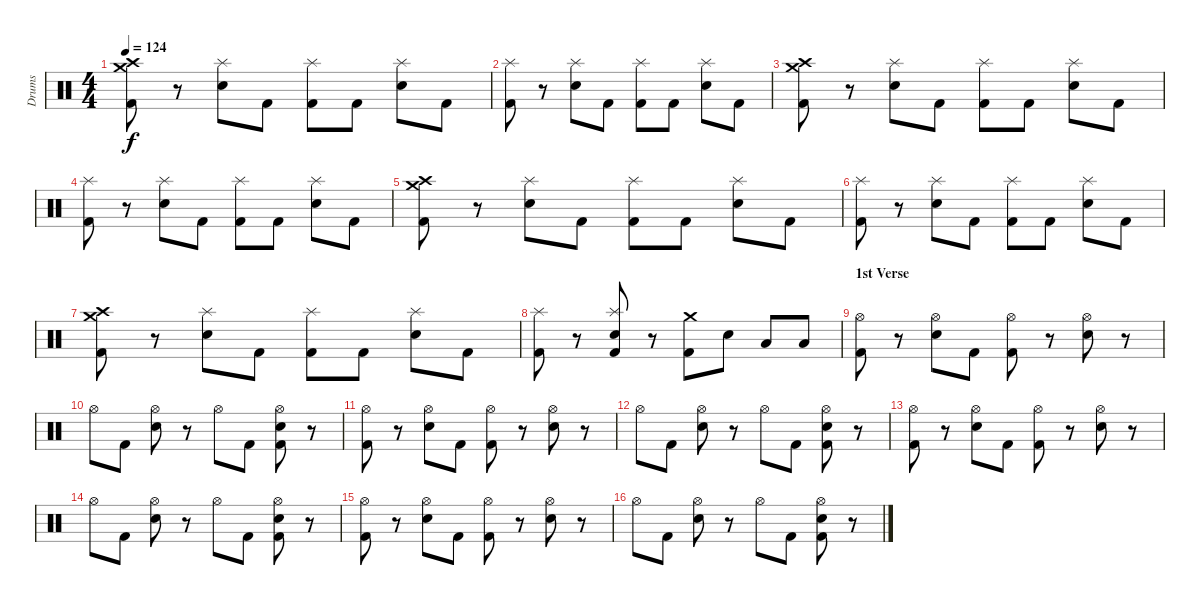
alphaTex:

\track ("Drums" "Drums") {instrument percussion}
\staff {score}
\articulation defaults
\ts (4 4)
\tempo 124
\clef neutral
\ks c
("Crash medium (hit)" "Crash high (hit)" "Kick (hit) 2").8{dy f} r.8 ("Splash (hit)" "Snare (hit) 2").8 "Kick (hit) 2".8 ("Splash (hit)" "Kick (hit) 2").8 "Kick (hit) 2".8 ("Splash (hit)" "Snare (hit) 2").8 "Kick (hit) 2".8 |
("Splash (hit)" "Kick (hit) 2").8 r.8 ("Splash (hit)" "Snare (hit) 2").8 "Kick (hit) 2".8 ("Splash (hit)" "Kick (hit) 2").8 "Kick (hit) 2".8 ("Splash (hit)" "Snare (hit) 2").8 "Kick (hit) 2".8 |
("Crash medium (hit)" "Crash high (hit)" "Kick (hit) 2").8 r.8 ("Splash (hit)" "Snare (hit) 2").8 "Kick (hit) 2".8 ("Splash (hit)" "Kick (hit) 2").8 "Kick (hit) 2".8 ("Splash (hit)" "Snare (hit) 2").8 "Kick (hit) 2".8 |
("Splash (hit)" "Kick (hit) 2").8 r.8 ("Splash (hit)" "Snare (hit) 2").8 "Kick (hit) 2".8 ("Splash (hit)" "Kick (hit) 2").8 "Kick (hit) 2".8 ("Splash (hit)" "Snare (hit) 2").8 "Kick (hit) 2".8 |
("Crash medium (hit)" "Crash high (hit)" "Kick (hit) 2").8 r.8 ("Splash (hit)" "Snare (hit) 2").8 "Kick (hit) 2".8 ("Splash (hit)" "Kick (hit) 2").8 "Kick (hit) 2".8 ("Splash (hit)" "Snare (hit) 2").8 "Kick (hit) 2".8 |
("Splash (hit)" "Kick (hit) 2").8 r.8 ("Splash (hit)" "Snare (hit) 2").8 "Kick (hit) 2".8 ("Splash (hit)" "Kick (hit) 2").8 "Kick (hit) 2".8 ("Splash (hit)" "Snare (hit) 2").8 "Kick (hit) 2".8 |
("Crash medium (hit)" "Crash high (hit)" "Kick (hit) 2").8 r.8 ("Splash (hit)" "Snare (hit) 2").8 "Kick (hit) 2".8 ("Splash (hit)" "Kick (hit) 2").8 "Kick (hit) 2".8 ("Splash (hit)" "Snare (hit) 2").8 "Kick (hit) 2".8 |
("Splash (hit)" "Kick (hit) 2").8 r.8 ("Splash (hit)" "Snare (hit) 2" "Kick (hit) 2").8 r.8 ("Crash medium (hit)" "Kick (hit) 2").8 "Snare (hit) 2".8 "Low Tom (hit)".8 "Low Tom (hit)".8 |
\section ("" "1st Verse")
("Hi-Hat (open)" "Kick (hit) 2").8 r.8 ("Hi-Hat (open)" "Snare (hit) 2").8 "Kick (hit) 2".8 ("Hi-Hat (open)" "Kick (hit) 2").8 r.8 ("Hi-Hat (open)" "Snare (hit) 2").8 r.8 |
"Hi-Hat (open)".8 "Kick (hit) 2".8 ("Hi-Hat (open)" "Snare (hit) 2").8 r.8 "Hi-Hat (open)".8 "Kick (hit) 2".8 ("Hi-Hat (open)" "Snare (hit) 2" "Kick (hit) 2").8 r.8 |
("Hi-Hat (open)" "Kick (hit) 2").8 r.8 ("Hi-Hat (open)" "Snare (hit) 2").8 "Kick (hit) 2".8 ("Hi-Hat (open)" "Kick (hit) 2").8 r.8 ("Hi-Hat (open)" "Snare (hit) 2").8 r.8 |
"Hi-Hat (open)".8 "Kick (hit) 2".8 ("Hi-Hat (open)" "Snare (hit) 2").8 r.8 "Hi-Hat (open)".8 "Kick (hit) 2".8 ("Hi-Hat (open)" "Snare (hit) 2" "Kick (hit) 2").8 r.8 |
("Hi-Hat (open)" "Kick (hit) 2").8 r.8 ("Hi-Hat (open)" "Snare (hit) 2").8 "Kick (hit) 2".8 ("Hi-Hat (open)" "Kick (hit) 2").8 r.8 ("Hi-Hat (open)" "Snare (hit) 2").8 r.8 |
"Hi-Hat (open)".8 "Kick (hit) 2".8 ("Hi-Hat (open)" "Snare (hit) 2").8 r.8 "Hi-Hat (open)".8 "Kick (hit) 2".8 ("Hi-Hat (open)" "Snare (hit) 2" "Kick (hit) 2").8 r.8 |
("Hi-Hat (open)" "Kick (hit) 2").8 r.8 ("Hi-Hat (open)" "Snare (hit) 2").8 "Kick (hit) 2".8 ("Hi-Hat (open)" "Kick (hit) 2").8 r.8 ("Hi-Hat (open)" "Snare (hit) 2").8 r.8 |
"Hi-Hat (open)".8 "Kick (hit) 2".8 ("Hi-Hat (open)" "Snare (hit) 2").8 r.8 "Hi-Hat (open)".8 "Kick (hit) 2".8 ("Hi-Hat (open)" "Snare (hit) 2" "Kick (hit) 2").8 r.8
